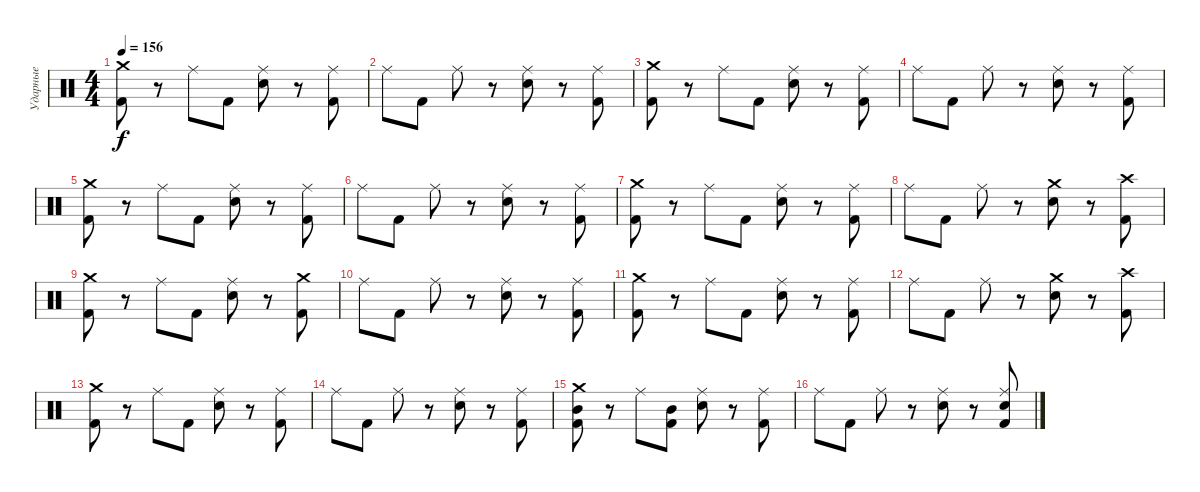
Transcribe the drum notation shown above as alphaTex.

\track ("Ударные" "Ударные") {instrument percussion}
\staff {score}
\articulation defaults
\ts (4 4)
\tempo 156
\clef neutral
\ks c
("Crash medium (hit)" "Kick (hit) 2").8{dy f} r.8 "Ride (middle)".8 "Kick (hit) 2".8 ("Ride (middle)" "Electric Snare (hit)").8 r.8 ("Ride (middle)" "Kick (hit) 2").8 |
"Ride (middle)".8 "Kick (hit) 2".8 "Ride (middle)".8 r.8 ("Ride (middle)" "Electric Snare (hit)").8 r.8 ("Ride (middle)" "Kick (hit) 2").8 |
("Crash medium (hit)" "Kick (hit) 2").8 r.8 "Ride (middle)".8 "Kick (hit) 2".8 ("Ride (middle)" "Electric Snare (hit)").8 r.8 ("Ride (middle)" "Kick (hit) 2").8 |
"Ride (middle)".8 "Kick (hit) 2".8 "Ride (middle)".8 r.8 ("Ride (middle)" "Electric Snare (hit)").8 r.8 ("Ride (middle)" "Kick (hit) 2").8 |
("Crash medium (hit)" "Kick (hit) 2").8 r.8 "Ride (middle)".8 "Kick (hit) 2".8 ("Ride (middle)" "Electric Snare (hit)").8 r.8 ("Ride (middle)" "Kick (hit) 2").8 |
"Ride (middle)".8 "Kick (hit) 2".8 "Ride (middle)".8 r.8 ("Ride (middle)" "Electric Snare (hit)").8 r.8 ("Ride (middle)" "Kick (hit) 2").8 |
("Crash medium (hit)" "Kick (hit) 2").8 r.8 "Ride (middle)".8 "Kick (hit) 2".8 ("Ride (middle)" "Electric Snare (hit)").8 r.8 ("Ride (middle)" "Kick (hit) 2").8 |
"Ride (middle)".8 "Kick (hit) 2".8 "Ride (middle)".8 r.8 ("Crash medium (hit)" "Electric Snare (hit)").8 r.8 ("Crash high (hit)" "Kick (hit) 2").8 |
("Crash medium (hit)" "Kick (hit) 2").8 r.8 "Ride (middle)".8 "Kick (hit) 2".8 ("Ride (middle)" "Electric Snare (hit)").8 r.8 ("Crash medium (hit)" "Kick (hit) 2").8 |
"Ride (middle)".8 "Kick (hit) 2".8 "Ride (middle)".8 r.8 ("Ride (middle)" "Electric Snare (hit)").8 r.8 ("Ride (middle)" "Kick (hit) 2").8 |
("Crash medium (hit)" "Kick (hit) 2").8 r.8 "Ride (middle)".8 "Kick (hit) 2".8 ("Ride (middle)" "Electric Snare (hit)").8 r.8 ("Ride (middle)" "Kick (hit) 2").8 |
"Ride (middle)".8 "Kick (hit) 2".8 "Ride (middle)".8 r.8 ("Crash medium (hit)" "Electric Snare (hit)").8 r.8 ("Crash high (hit)" "Kick (hit) 2").8 |
("Crash medium (hit)" "Kick (hit) 2").8 r.8 "Ride (middle)".8 "Kick (hit) 2".8 ("Ride (middle)" "Electric Snare (hit)").8 r.8 ("Ride (middle)" "Kick (hit) 2").8 |
"Ride (middle)".8 "Kick (hit) 2".8 "Ride (middle)".8 r.8 ("Ride (middle)" "Electric Snare (hit)").8 r.8 ("Ride (middle)" "Kick (hit) 2").8 |
("Crash medium (hit)" "Kick (hit) 2" "Mid Tom (hit)").8 r.8 "Ride (middle)".8 ("Kick (hit) 2" "Mid Tom (hit)").8 ("Ride (middle)" "Electric Snare (hit)").8 r.8 ("Ride (middle)" "Kick (hit) 2").8 |
"Ride (middle)".8 "Kick (hit) 2".8 "Ride (middle)".8 r.8 ("Ride (middle)" "Electric Snare (hit)").8 r.8 ("Ride (middle)" "Kick (hit) 2" "Electric Snare (hit)").8
